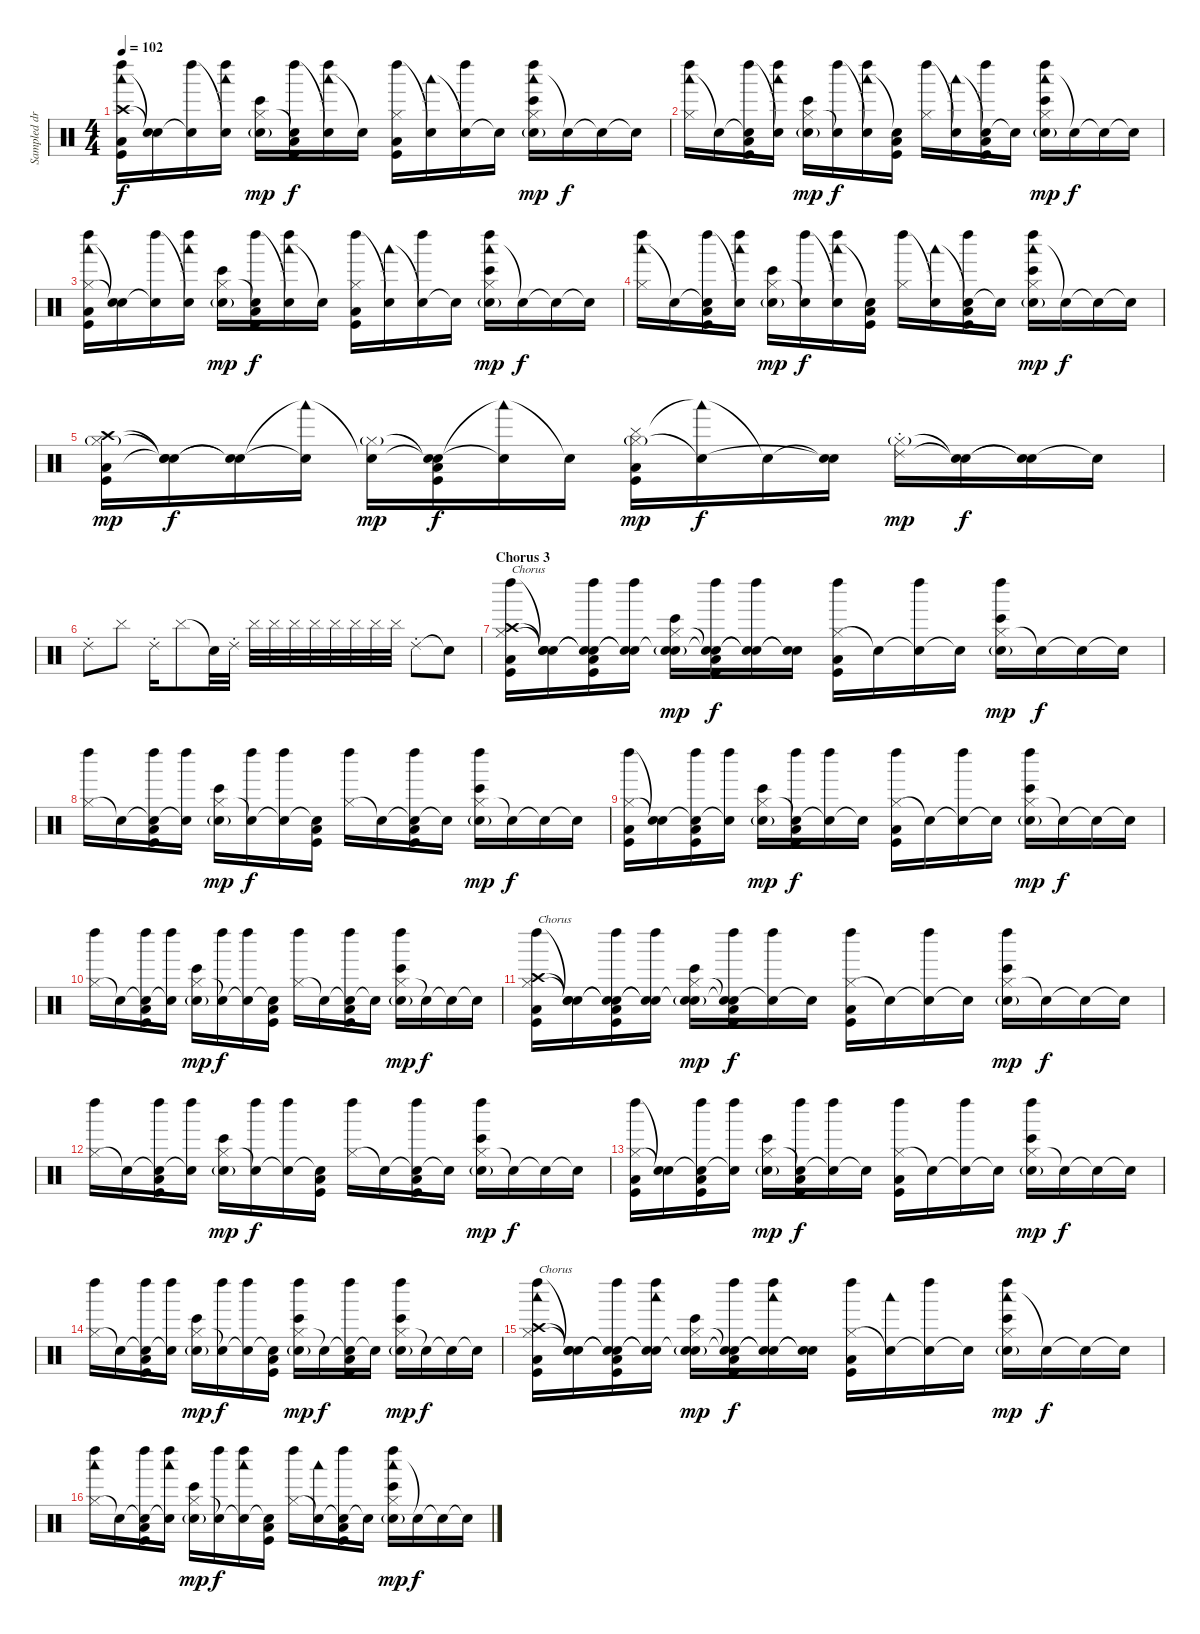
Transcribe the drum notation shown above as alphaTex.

\track ("Sampled drums (Rob and Joe)" "Sampled dr") {instrument percussion}
\staff {score}
\articulation defaults
\ts (4 4)
\tempo 102
\clef neutral
\ks c
("Woodblock low (hit)" "Crash high (hit)" "Left Maraca (hit)" "Low Floor Tom (hit)" "Kick (hit)").16{dy f} ("Snare (hit)"{t} "Snare (hit)"{t}).16 ("Snare (hit)"{t} "Left Maraca (hit)").16 ("Woodblock low (hit)" "Snare (hit)"{t} "Left Maraca (hit)").16 ("Hi-Hat (closed)" "Bongo High (hit)" "Electric Snare (hit)"{g}).16{dy mp} ("Snare (hit)"{t} "Left Maraca (hit)" "Low Floor Tom (hit)" "Kick (hit)").16{dy f} ("Woodblock low (hit)" "Snare (hit)"{t} "Left Maraca (hit)").16 "Snare (hit)"{t}.16 ("Hi-Hat (closed)" "Left Maraca (hit)" "Low Floor Tom (hit)" "Kick (hit)").16 ("Woodblock low (hit)" "Snare (hit)"{t}).16 ("Snare (hit)"{t} "Left Maraca (hit)").16 "Snare (hit)"{t}.16 ("Woodblock low (hit)" "Hi-Hat (closed)" "Left Maraca (hit)" "Bongo High (hit)" "Electric Snare (hit)"{g}).16{dy mp} "Snare (hit)"{t}.16{dy f} "Snare (hit)"{t}.16 "Snare (hit)"{t}.16 |
("Woodblock low (hit)" "Hi-Hat (closed)" "Left Maraca (hit)").16 "Snare (hit)"{t}.16 ("Snare (hit)"{t} "Left Maraca (hit)" "Low Floor Tom (hit)" "Kick (hit)").16 ("Woodblock low (hit)" "Snare (hit)"{t} "Left Maraca (hit)").16 ("Hi-Hat (closed)" "Bongo High (hit)" "Electric Snare (hit)"{g}).16{dy mp} ("Snare (hit)"{t} "Left Maraca (hit)").16{dy f} ("Woodblock low (hit)" "Snare (hit)"{t} "Left Maraca (hit)").16 ("Snare (hit)"{t} "Low Floor Tom (hit)" "Kick (hit)").16 ("Hi-Hat (closed)" "Left Maraca (hit)").16 ("Woodblock low (hit)" "Snare (hit)"{t}).16 ("Snare (hit)"{t} "Left Maraca (hit)" "Low Floor Tom (hit)" "Kick (hit)").16 "Snare (hit)"{t}.16 ("Woodblock low (hit)" "Hi-Hat (closed)" "Left Maraca (hit)" "Bongo High (hit)" "Electric Snare (hit)"{g}).16{dy mp} "Snare (hit)"{t}.16{dy f} "Snare (hit)"{t}.16 "Snare (hit)"{t}.16 |
("Woodblock low (hit)" "Hi-Hat (closed)" "Left Maraca (hit)" "Low Floor Tom (hit)" "Kick (hit)").16 ("Snare (hit)"{t} "Snare (hit)"{t}).16 ("Snare (hit)"{t} "Left Maraca (hit)").16 ("Woodblock low (hit)" "Snare (hit)"{t} "Left Maraca (hit)").16 ("Hi-Hat (closed)" "Bongo High (hit)" "Electric Snare (hit)"{g}).16{dy mp} ("Snare (hit)"{t} "Left Maraca (hit)" "Low Floor Tom (hit)" "Kick (hit)").16{dy f} ("Woodblock low (hit)" "Snare (hit)"{t} "Left Maraca (hit)").16 "Snare (hit)"{t}.16 ("Hi-Hat (closed)" "Left Maraca (hit)" "Low Floor Tom (hit)" "Kick (hit)").16 ("Woodblock low (hit)" "Snare (hit)"{t}).16 ("Snare (hit)"{t} "Left Maraca (hit)").16 "Snare (hit)"{t}.16 ("Woodblock low (hit)" "Hi-Hat (closed)" "Left Maraca (hit)" "Bongo High (hit)" "Electric Snare (hit)"{g}).16{dy mp} "Snare (hit)"{t}.16{dy f} "Snare (hit)"{t}.16 "Snare (hit)"{t}.16 |
("Woodblock low (hit)" "Hi-Hat (closed)" "Left Maraca (hit)").16 "Snare (hit)"{t}.16 ("Snare (hit)"{t} "Left Maraca (hit)" "Low Floor Tom (hit)" "Kick (hit)").16 ("Woodblock low (hit)" "Snare (hit)"{t} "Left Maraca (hit)").16 ("Hi-Hat (closed)" "Bongo High (hit)" "Electric Snare (hit)"{g}).16{dy mp} ("Snare (hit)"{t} "Left Maraca (hit)").16{dy f} ("Woodblock low (hit)" "Snare (hit)"{t} "Left Maraca (hit)").16 ("Snare (hit)"{t} "Low Floor Tom (hit)" "Kick (hit)").16 ("Hi-Hat (closed)" "Left Maraca (hit)").16 ("Woodblock low (hit)" "Snare (hit)"{t}).16 ("Snare (hit)"{t} "Left Maraca (hit)" "Low Floor Tom (hit)" "Kick (hit)").16 "Snare (hit)"{t}.16 ("Woodblock low (hit)" "Hi-Hat (closed)" "Left Maraca (hit)" "Bongo High (hit)" "Electric Snare (hit)"{g}).16{dy mp} "Snare (hit)"{t}.16{dy f} "Snare (hit)"{t}.16 "Snare (hit)"{t}.16 |
("Crash high (hit)" "Hi-Hat (closed)"{g} "Low Floor Tom (hit)" "Kick (hit)").16{dy mp} ("Snare (hit)"{t} "Snare (hit)"{t} "Snare (hit)"{t}).16{dy f} ("Snare (hit)"{t} "Snare (hit)"{t}).16 ("Woodblock low (hit)"{t} "Snare (hit)"{t}).16 ("Snare (hit)"{t} "Hi-Hat (closed)"{g}).16{dy mp} ("Snare (hit)"{t} "Snare (hit)"{t} "Low Floor Tom (hit)" "Kick (hit)").16{dy f} ("Woodblock low (hit)"{t} "Snare (hit)"{t}).16 "Snare (hit)"{t}.16 ("Cymbal (hit)" "Hi-Hat (closed)"{g} "Low Floor Tom (hit)" "Kick (hit)").16{dy mp} ("Woodblock low (hit)"{t} "Snare (hit)"{t}).16{dy f} "Snare (hit)"{t}.16 ("Snare (hit)"{t} "Snare (hit)"{t}).16 ("Ride (choke) 2" "Hi-Hat (closed)"{g}).16{dy mp} ("Snare (hit)"{t} "Snare (hit)"{t}).16{dy f} ("Snare (hit)"{t} "Snare (hit)"{t}).16 "Snare (hit)"{t}.16 |
"Ride (choke) 2".8 "Cymbal (hit)".8 "Ride (choke) 2".16 "Cymbal (hit)".8 "Snare (hit)"{t}.32 "Ride (choke) 2".32 "Cymbal (hit)".32 "Cymbal (hit)".32 "Cymbal (hit)".32 "Cymbal (hit)".32 "Cymbal (hit)".32 "Cymbal (hit)".32 "Cymbal (hit)".32 "Cymbal (hit)".32 "Ride (choke) 2".8 "Snare (hit)"{t}.8 |
\section ("" "Chorus 3")
("Crash high (hit)" "Hi-Hat (closed)" "Left Maraca (hit)" "Low Floor Tom (hit)" "Kick (hit)").16{txt "Chorus"} ("Snare (hit)"{t} "Snare (hit)"{t} "Snare (hit)"{t}).16 ("Snare (hit)"{t} "Snare (hit)"{t} "Left Maraca (hit)" "Low Floor Tom (hit)" "Kick (hit)").16 ("Snare (hit)"{t} "Snare (hit)"{t} "Left Maraca (hit)").16 ("Snare (hit)"{t} "Hi-Hat (closed)" "Bongo High (hit)" "Electric Snare (hit)"{g}).16{dy mp} ("Snare (hit)"{t} "Snare (hit)"{t} "Left Maraca (hit)" "Low Floor Tom (hit)" "Kick (hit)").16{dy f} ("Snare (hit)"{t} "Snare (hit)"{t} "Left Maraca (hit)").16 ("Snare (hit)"{t} "Snare (hit)"{t}).16 ("Hi-Hat (closed)" "Left Maraca (hit)" "Low Floor Tom (hit)" "Kick (hit)").16 "Snare (hit)"{t}.16 ("Snare (hit)"{t} "Left Maraca (hit)").16 "Snare (hit)"{t}.16 ("Hi-Hat (closed)" "Left Maraca (hit)" "Bongo High (hit)" "Electric Snare (hit)"{g}).16{dy mp} "Snare (hit)"{t}.16{dy f} "Snare (hit)"{t}.16 "Snare (hit)"{t}.16 |
("Hi-Hat (closed)" "Left Maraca (hit)").16 "Snare (hit)"{t}.16 ("Snare (hit)"{t} "Left Maraca (hit)" "Low Floor Tom (hit)" "Kick (hit)").16 ("Snare (hit)"{t} "Left Maraca (hit)").16 ("Hi-Hat (closed)" "Bongo High (hit)" "Electric Snare (hit)"{g}).16{dy mp} ("Snare (hit)"{t} "Left Maraca (hit)").16{dy f} ("Snare (hit)"{t} "Left Maraca (hit)").16 ("Snare (hit)"{t} "Low Floor Tom (hit)" "Kick (hit)").16 ("Hi-Hat (closed)" "Left Maraca (hit)").16 "Snare (hit)"{t}.16 ("Snare (hit)"{t} "Left Maraca (hit)" "Low Floor Tom (hit)" "Kick (hit)").16 "Snare (hit)"{t}.16 ("Hi-Hat (closed)" "Left Maraca (hit)" "Bongo High (hit)" "Electric Snare (hit)"{g}).16{dy mp} "Snare (hit)"{t}.16{dy f} "Snare (hit)"{t}.16 "Snare (hit)"{t}.16 |
("Hi-Hat (closed)" "Left Maraca (hit)" "Low Floor Tom (hit)" "Kick (hit)").16 ("Snare (hit)"{t} "Snare (hit)"{t}).16 ("Snare (hit)"{t} "Left Maraca (hit)" "Low Floor Tom (hit)" "Kick (hit)").16 ("Snare (hit)"{t} "Left Maraca (hit)").16 ("Hi-Hat (closed)" "Bongo High (hit)" "Electric Snare (hit)"{g}).16{dy mp} ("Snare (hit)"{t} "Left Maraca (hit)" "Low Floor Tom (hit)" "Kick (hit)").16{dy f} ("Snare (hit)"{t} "Left Maraca (hit)").16 "Snare (hit)"{t}.16 ("Hi-Hat (closed)" "Left Maraca (hit)" "Low Floor Tom (hit)" "Kick (hit)").16 "Snare (hit)"{t}.16 ("Snare (hit)"{t} "Left Maraca (hit)").16 "Snare (hit)"{t}.16 ("Hi-Hat (closed)" "Left Maraca (hit)" "Bongo High (hit)" "Electric Snare (hit)"{g}).16{dy mp} "Snare (hit)"{t}.16{dy f} "Snare (hit)"{t}.16 "Snare (hit)"{t}.16 |
("Hi-Hat (closed)" "Left Maraca (hit)").16 "Snare (hit)"{t}.16 ("Snare (hit)"{t} "Left Maraca (hit)" "Low Floor Tom (hit)" "Kick (hit)").16 ("Snare (hit)"{t} "Left Maraca (hit)").16 ("Hi-Hat (closed)" "Bongo High (hit)" "Electric Snare (hit)"{g}).16{dy mp} ("Snare (hit)"{t} "Left Maraca (hit)").16{dy f} ("Snare (hit)"{t} "Left Maraca (hit)").16 ("Snare (hit)"{t} "Low Floor Tom (hit)" "Kick (hit)").16 ("Hi-Hat (closed)" "Left Maraca (hit)").16 "Snare (hit)"{t}.16 ("Snare (hit)"{t} "Left Maraca (hit)" "Low Floor Tom (hit)" "Kick (hit)").16 "Snare (hit)"{t}.16 ("Hi-Hat (closed)" "Left Maraca (hit)" "Bongo High (hit)" "Electric Snare (hit)"{g}).16{dy mp} "Snare (hit)"{t}.16{dy f} "Snare (hit)"{t}.16 "Snare (hit)"{t}.16 |
("Crash high (hit)" "Hi-Hat (closed)" "Left Maraca (hit)" "Low Floor Tom (hit)" "Kick (hit)").16{txt "Chorus"} ("Snare (hit)"{t} "Snare (hit)"{t} "Snare (hit)"{t}).16 ("Snare (hit)"{t} "Snare (hit)"{t} "Left Maraca (hit)" "Low Floor Tom (hit)" "Kick (hit)").16 ("Snare (hit)"{t} "Snare (hit)"{t} "Left Maraca (hit)").16 ("Snare (hit)"{t} "Hi-Hat (closed)" "Bongo High (hit)" "Electric Snare (hit)"{g}).16{dy mp} ("Snare (hit)"{t} "Snare (hit)"{t} "Left Maraca (hit)" "Low Floor Tom (hit)" "Kick (hit)").16{dy f} ("Snare (hit)"{t} "Left Maraca (hit)").16 "Snare (hit)"{t}.16 ("Hi-Hat (closed)" "Left Maraca (hit)" "Low Floor Tom (hit)" "Kick (hit)").16 "Snare (hit)"{t}.16 ("Snare (hit)"{t} "Left Maraca (hit)").16 "Snare (hit)"{t}.16 ("Hi-Hat (closed)" "Left Maraca (hit)" "Bongo High (hit)" "Electric Snare (hit)"{g}).16{dy mp} "Snare (hit)"{t}.16{dy f} "Snare (hit)"{t}.16 "Snare (hit)"{t}.16 |
("Hi-Hat (closed)" "Left Maraca (hit)").16 "Snare (hit)"{t}.16 ("Snare (hit)"{t} "Left Maraca (hit)" "Low Floor Tom (hit)" "Kick (hit)").16 ("Snare (hit)"{t} "Left Maraca (hit)").16 ("Hi-Hat (closed)" "Bongo High (hit)" "Electric Snare (hit)"{g}).16{dy mp} ("Snare (hit)"{t} "Left Maraca (hit)").16{dy f} ("Snare (hit)"{t} "Left Maraca (hit)").16 ("Snare (hit)"{t} "Low Floor Tom (hit)" "Kick (hit)").16 ("Hi-Hat (closed)" "Left Maraca (hit)").16 "Snare (hit)"{t}.16 ("Snare (hit)"{t} "Left Maraca (hit)" "Low Floor Tom (hit)" "Kick (hit)").16 "Snare (hit)"{t}.16 ("Hi-Hat (closed)" "Left Maraca (hit)" "Bongo High (hit)" "Electric Snare (hit)"{g}).16{dy mp} "Snare (hit)"{t}.16{dy f} "Snare (hit)"{t}.16 "Snare (hit)"{t}.16 |
("Hi-Hat (closed)" "Left Maraca (hit)" "Low Floor Tom (hit)" "Kick (hit)").16 ("Snare (hit)"{t} "Snare (hit)"{t}).16 ("Snare (hit)"{t} "Left Maraca (hit)" "Low Floor Tom (hit)" "Kick (hit)").16 ("Snare (hit)"{t} "Left Maraca (hit)").16 ("Hi-Hat (closed)" "Bongo High (hit)" "Electric Snare (hit)"{g}).16{dy mp} ("Snare (hit)"{t} "Left Maraca (hit)" "Low Floor Tom (hit)" "Kick (hit)").16{dy f} ("Snare (hit)"{t} "Left Maraca (hit)").16 "Snare (hit)"{t}.16 ("Hi-Hat (closed)" "Left Maraca (hit)" "Low Floor Tom (hit)" "Kick (hit)").16 "Snare (hit)"{t}.16 ("Snare (hit)"{t} "Left Maraca (hit)").16 "Snare (hit)"{t}.16 ("Hi-Hat (closed)" "Left Maraca (hit)" "Bongo High (hit)" "Electric Snare (hit)"{g}).16{dy mp} "Snare (hit)"{t}.16{dy f} "Snare (hit)"{t}.16 "Snare (hit)"{t}.16 |
("Hi-Hat (closed)" "Left Maraca (hit)").16 "Snare (hit)"{t}.16 ("Snare (hit)"{t} "Left Maraca (hit)" "Low Floor Tom (hit)" "Kick (hit)").16 ("Snare (hit)"{t} "Left Maraca (hit)").16 ("Hi-Hat (closed)" "Bongo High (hit)" "Electric Snare (hit)"{g}).16{dy mp} ("Snare (hit)"{t} "Left Maraca (hit)").16{dy f} ("Snare (hit)"{t} "Left Maraca (hit)").16 ("Snare (hit)"{t} "Low Floor Tom (hit)" "Kick (hit)").16 ("Hi-Hat (closed)" "Left Maraca (hit)" "Bongo High (hit)" "Electric Snare (hit)"{g}).16{dy mp} "Snare (hit)"{t}.16{dy f} ("Snare (hit)"{t} "Left Maraca (hit)" "Low Floor Tom (hit)" "Kick (hit)").16 "Snare (hit)"{t}.16 ("Hi-Hat (closed)" "Left Maraca (hit)" "Bongo High (hit)" "Electric Snare (hit)"{g}).16{dy mp} "Snare (hit)"{t}.16{dy f} "Snare (hit)"{t}.16 "Snare (hit)"{t}.16 |
("Crash high (hit)" "Hi-Hat (closed)" "Left Maraca (hit)" "Woodblock low (hit)" "Low Floor Tom (hit)" "Kick (hit)").16{txt "Chorus"} ("Snare (hit)"{t} "Snare (hit)"{t} "Snare (hit)"{t}).16 ("Snare (hit)"{t} "Snare (hit)"{t} "Left Maraca (hit)" "Low Floor Tom (hit)" "Kick (hit)").16 ("Snare (hit)"{t} "Snare (hit)"{t} "Left Maraca (hit)" "Woodblock low (hit)").16 ("Snare (hit)"{t} "Hi-Hat (closed)" "Bongo High (hit)" "Electric Snare (hit)"{g}).16{dy mp} ("Snare (hit)"{t} "Snare (hit)"{t} "Left Maraca (hit)" "Low Floor Tom (hit)" "Kick (hit)").16{dy f} ("Snare (hit)"{t} "Snare (hit)"{t} "Left Maraca (hit)" "Woodblock low (hit)").16 ("Snare (hit)"{t} "Snare (hit)"{t}).16 ("Hi-Hat (closed)" "Left Maraca (hit)" "Low Floor Tom (hit)" "Kick (hit)").16 ("Snare (hit)"{t} "Woodblock low (hit)").16 ("Snare (hit)"{t} "Left Maraca (hit)").16 "Snare (hit)"{t}.16 ("Woodblock low (hit)" "Hi-Hat (closed)" "Left Maraca (hit)" "Bongo High (hit)" "Electric Snare (hit)"{g}).16{dy mp} "Snare (hit)"{t}.16{dy f} "Snare (hit)"{t}.16 "Snare (hit)"{t}.16 |
("Hi-Hat (closed)" "Left Maraca (hit)" "Woodblock low (hit)").16 "Snare (hit)"{t}.16 ("Snare (hit)"{t} "Left Maraca (hit)" "Low Floor Tom (hit)" "Kick (hit)").16 ("Snare (hit)"{t} "Left Maraca (hit)" "Woodblock low (hit)").16 ("Hi-Hat (closed)" "Bongo High (hit)" "Electric Snare (hit)"{g}).16{dy mp} ("Snare (hit)"{t} "Left Maraca (hit)").16{dy f} ("Snare (hit)"{t} "Left Maraca (hit)" "Woodblock low (hit)").16 ("Snare (hit)"{t} "Low Floor Tom (hit)" "Kick (hit)").16 ("Hi-Hat (closed)" "Left Maraca (hit)").16 ("Snare (hit)"{t} "Woodblock low (hit)").16 ("Snare (hit)"{t} "Left Maraca (hit)" "Low Floor Tom (hit)" "Kick (hit)").16 "Snare (hit)"{t}.16 ("Woodblock low (hit)" "Hi-Hat (closed)" "Left Maraca (hit)" "Bongo High (hit)" "Electric Snare (hit)"{g}).16{dy mp} "Snare (hit)"{t}.16{dy f} "Snare (hit)"{t}.16 "Snare (hit)"{t}.16
